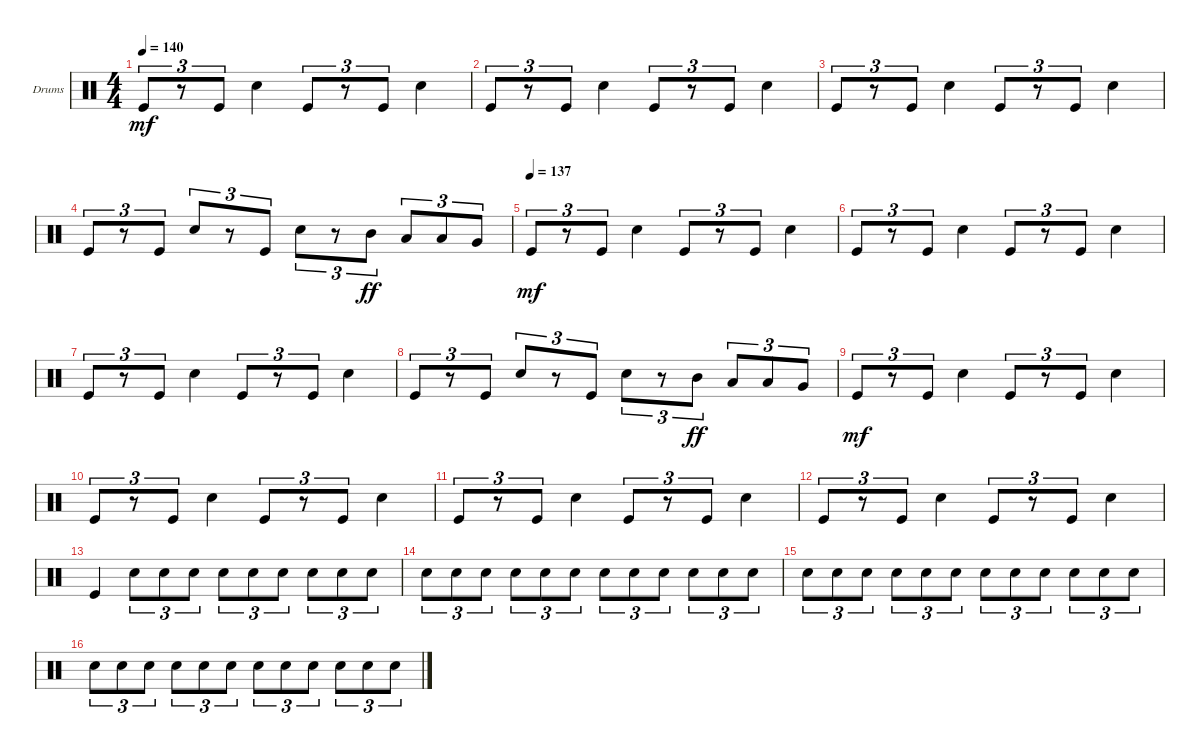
\defaultSystemsLayout 4
\bracketExtendMode groupsimilarinstruments
\firstSystemTrackNameOrientation horizontal
\otherSystemsTrackNameOrientation horizontal
\track ("Drumkit" "Drums") {instrument percussion}
\staff {score}
\articulation defaults
\ts (4 4)
\tempo 140
\clef neutral
\scale
0.333333
\ks c "Kick (hit)".8{tu (3 2) dy mf}
r.8{tu (3 2)} "Kick (hit)".8{tu (3 2)} "Snare (hit) 2".4 "Kick (hit)".8{tu (3 2)} r.8{tu (3 2)} "Kick (hit)".8{tu (3 2)} "Snare (hit) 2".4 |
\scale
0.333333 "Kick (hit)".8{tu (3 2)} r.8{tu (3 2)} "Kick (hit)".8{tu (3 2)} "Snare (hit) 2".4 "Kick (hit)".8{tu (3 2)} r.8{tu (3 2)} "Kick (hit)".8{tu (3 2)} "Snare (hit) 2".4 |
\scale
0.333333 "Kick (hit)".8{tu (3 2)} r.8{tu (3 2)} "Kick (hit)".8{tu (3 2)} "Snare (hit) 2".4 "Kick (hit)".8{tu (3 2)} r.8{tu (3 2)} "Kick (hit)".8{tu (3 2)} "Snare (hit) 2".4 |
\scale
0.333333 "Kick (hit)".8{tu (3 2)} r.8{tu (3 2)} "Kick (hit)".8{tu (3 2)} "Snare (hit) 2".8{tu (3 2)} r.8{tu (3 2)} "Kick (hit)".8{tu (3 2)} "Snare (hit) 2".8{tu (3 2)} r.8{tu (3 2)} "Mid Tom (hit)".8{tu (3 2) dy ff} "Low Tom (hit)".8{tu (3 2)} "Low Tom (hit)".8{tu (3 2)} "Very Low Tom (hit)".8{tu (3 2)} |
\tempo 137
\scale
0.333333 "Kick (hit)".8{tu (3 2) dy mf} r.8{tu (3 2)} "Kick (hit)".8{tu (3 2)} "Snare (hit) 2".4 "Kick (hit)".8{tu (3 2)} r.8{tu (3 2)} "Kick (hit)".8{tu (3 2)} "Snare (hit) 2".4 |
\scale
0.333333 "Kick (hit)".8{tu (3 2)} r.8{tu (3 2)} "Kick (hit)".8{tu (3 2)} "Snare (hit) 2".4 "Kick (hit)".8{tu (3 2)} r.8{tu (3 2)} "Kick (hit)".8{tu (3 2)} "Snare (hit) 2".4 |
\scale
0.333333 "Kick (hit)".8{tu (3 2)} r.8{tu (3 2)} "Kick (hit)".8{tu (3 2)} "Snare (hit) 2".4 "Kick (hit)".8{tu (3 2)} r.8{tu (3 2)} "Kick (hit)".8{tu (3 2)} "Snare (hit) 2".4 |
\scale
0.333333 "Kick (hit)".8{tu (3 2)} r.8{tu (3 2)} "Kick (hit)".8{tu (3 2)} "Snare (hit) 2".8{tu (3 2)} r.8{tu (3 2)} "Kick (hit)".8{tu (3 2)} "Snare (hit) 2".8{tu (3 2)} r.8{tu (3 2)} "Mid Tom (hit)".8{tu (3 2) dy ff} "Low Tom (hit)".8{tu (3 2)} "Low Tom (hit)".8{tu (3 2)} "Very Low Tom (hit)".8{tu (3 2)} |
\scale
0.333333 "Kick (hit)".8{tu (3 2) dy mf} r.8{tu (3 2)} "Kick (hit)".8{tu (3 2)} "Snare (hit) 2".4 "Kick (hit)".8{tu (3 2)} r.8{tu (3 2)} "Kick (hit)".8{tu (3 2)} "Snare (hit) 2".4 |
\scale
0.333333 "Kick (hit)".8{tu (3 2)} r.8{tu (3 2)} "Kick (hit)".8{tu (3 2)} "Snare (hit) 2".4 "Kick (hit)".8{tu (3 2)} r.8{tu (3 2)} "Kick (hit)".8{tu (3 2)} "Snare (hit) 2".4 |
\scale
0.333333 "Kick (hit)".8{tu (3 2)} r.8{tu (3 2)} "Kick (hit)".8{tu (3 2)} "Snare (hit) 2".4 "Kick (hit)".8{tu (3 2)} r.8{tu (3 2)} "Kick (hit)".8{tu (3 2)} "Snare (hit) 2".4 |
\scale
0.333333 "Kick (hit)".8{tu (3 2)} r.8{tu (3 2)} "Kick (hit)".8{tu (3 2)} "Snare (hit) 2".4 "Kick (hit)".8{tu (3 2)} r.8{tu (3 2)} "Kick (hit)".8{tu (3 2)} "Snare (hit) 2".4 |
\scale
0.333333 "Kick (hit)".4 "Snare (hit) 2".8{tu (3 2)} "Snare (hit) 2".8{tu (3 2)} "Snare (hit) 2".8{tu (3 2)} "Snare (hit) 2".8{tu (3 2)} "Snare (hit) 2".8{tu (3 2)} "Snare (hit) 2".8{tu (3 2)} "Snare (hit) 2".8{tu (3 2)} "Snare (hit) 2".8{tu (3 2)} "Snare (hit) 2".8{tu (3 2)} |
\scale
0.333333 "Snare (hit) 2".8{tu (3 2)} "Snare (hit) 2".8{tu (3 2)} "Snare (hit) 2".8{tu (3 2)} "Snare (hit) 2".8{tu (3 2)} "Snare (hit) 2".8{tu (3 2)} "Snare (hit) 2".8{tu (3 2)} "Snare (hit) 2".8{tu (3 2)} "Snare (hit) 2".8{tu (3 2)} "Snare (hit) 2".8{tu (3 2)} "Snare (hit) 2".8{tu (3 2)} "Snare (hit) 2".8{tu (3 2)} "Snare (hit) 2".8{tu (3 2)} |
\scale
0.333333 "Snare (hit) 2".8{tu (3 2)} "Snare (hit) 2".8{tu (3 2)} "Snare (hit) 2".8{tu (3 2)} "Snare (hit) 2".8{tu (3 2)} "Snare (hit) 2".8{tu (3 2)} "Snare (hit) 2".8{tu (3 2)} "Snare (hit) 2".8{tu (3 2)} "Snare (hit) 2".8{tu (3 2)} "Snare (hit) 2".8{tu (3 2)} "Snare (hit) 2".8{tu (3 2)} "Snare (hit) 2".8{tu (3 2)} "Snare (hit) 2".8{tu (3 2)} |
\scale
0.333333 "Snare (hit) 2".8{tu (3 2)} "Snare (hit) 2".8{tu (3 2)} "Snare (hit) 2".8{tu (3 2)} "Snare (hit) 2".8{tu (3 2)} "Snare (hit) 2".8{tu (3 2)} "Snare (hit) 2".8{tu (3 2)} "Snare (hit) 2".8{tu (3 2)} "Snare (hit) 2".8{tu (3 2)} "Snare (hit) 2".8{tu (3 2)} "Snare (hit) 2".8{tu (3 2)} "Snare (hit) 2".8{tu (3 2)} "Snare (hit) 2".8{tu (3 2)}
